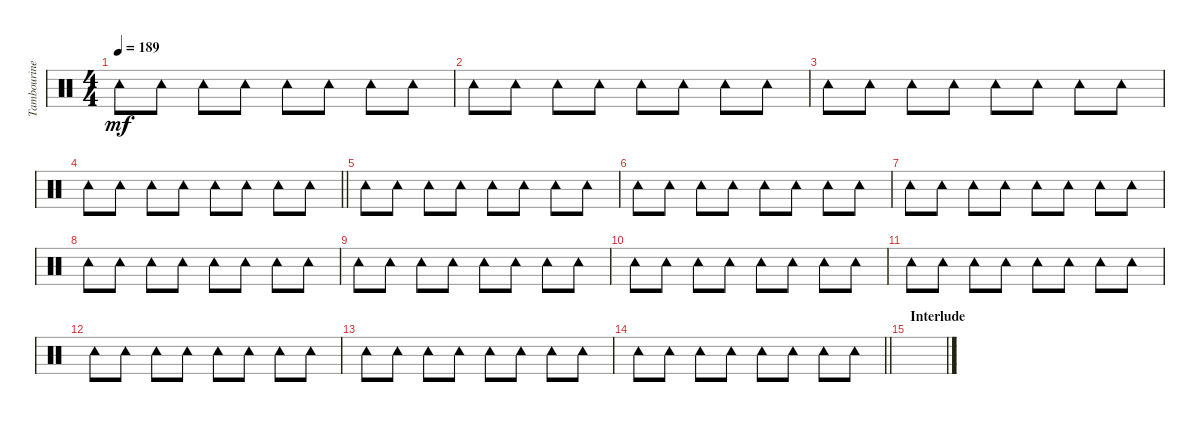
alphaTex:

\track ("Tambourine" "Tambourine") {instrument percussion}
\staff {score}
\articulation defaults
\ts (4 4)
\tempo 189
\clef neutral
\ks c "Tambourine (hit)".8{dy mf} "Tambourine (hit)".8 "Tambourine (hit)".8 "Tambourine (hit)".8 "Tambourine (hit)".8 "Tambourine (hit)".8 "Tambourine (hit)".8 "Tambourine (hit)".8
|
"Tambourine (hit)".8 "Tambourine (hit)".8 "Tambourine (hit)".8 "Tambourine (hit)".8 "Tambourine (hit)".8 "Tambourine (hit)".8 "Tambourine (hit)".8 "Tambourine (hit)".8 |
"Tambourine (hit)".8 "Tambourine (hit)".8 "Tambourine (hit)".8 "Tambourine (hit)".8 "Tambourine (hit)".8 "Tambourine (hit)".8 "Tambourine (hit)".8 "Tambourine (hit)".8 |
\barLineRight lightlight "Tambourine (hit)".8 "Tambourine (hit)".8 "Tambourine (hit)".8 "Tambourine (hit)".8 "Tambourine (hit)".8 "Tambourine (hit)".8 "Tambourine (hit)".8 "Tambourine (hit)".8
|
"Tambourine (hit)".8 "Tambourine (hit)".8 "Tambourine (hit)".8 "Tambourine (hit)".8 "Tambourine (hit)".8 "Tambourine (hit)".8 "Tambourine (hit)".8 "Tambourine (hit)".8 |
"Tambourine (hit)".8 "Tambourine (hit)".8 "Tambourine (hit)".8 "Tambourine (hit)".8 "Tambourine (hit)".8 "Tambourine (hit)".8 "Tambourine (hit)".8 "Tambourine (hit)".8 |
"Tambourine (hit)".8 "Tambourine (hit)".8 "Tambourine (hit)".8 "Tambourine (hit)".8 "Tambourine (hit)".8 "Tambourine (hit)".8 "Tambourine (hit)".8 "Tambourine (hit)".8 |
"Tambourine (hit)".8 "Tambourine (hit)".8 "Tambourine (hit)".8 "Tambourine (hit)".8 "Tambourine (hit)".8 "Tambourine (hit)".8 "Tambourine (hit)".8 "Tambourine (hit)".8 |
"Tambourine (hit)".8 "Tambourine (hit)".8 "Tambourine (hit)".8 "Tambourine (hit)".8 "Tambourine (hit)".8 "Tambourine (hit)".8 "Tambourine (hit)".8 "Tambourine (hit)".8 |
"Tambourine (hit)".8 "Tambourine (hit)".8 "Tambourine (hit)".8 "Tambourine (hit)".8 "Tambourine (hit)".8 "Tambourine (hit)".8 "Tambourine (hit)".8 "Tambourine (hit)".8 |
"Tambourine (hit)".8 "Tambourine (hit)".8 "Tambourine (hit)".8 "Tambourine (hit)".8 "Tambourine (hit)".8 "Tambourine (hit)".8 "Tambourine (hit)".8 "Tambourine (hit)".8 |
"Tambourine (hit)".8 "Tambourine (hit)".8 "Tambourine (hit)".8 "Tambourine (hit)".8 "Tambourine (hit)".8 "Tambourine (hit)".8 "Tambourine (hit)".8 "Tambourine (hit)".8 |
"Tambourine (hit)".8 "Tambourine (hit)".8 "Tambourine (hit)".8 "Tambourine (hit)".8 "Tambourine (hit)".8 "Tambourine (hit)".8 "Tambourine (hit)".8 "Tambourine (hit)".8 |
\barLineRight lightlight "Tambourine (hit)".8 "Tambourine (hit)".8 "Tambourine (hit)".8 "Tambourine (hit)".8 "Tambourine (hit)".8 "Tambourine (hit)".8 "Tambourine (hit)".8 "Tambourine (hit)".8
|
\section ("" "Interlude")
